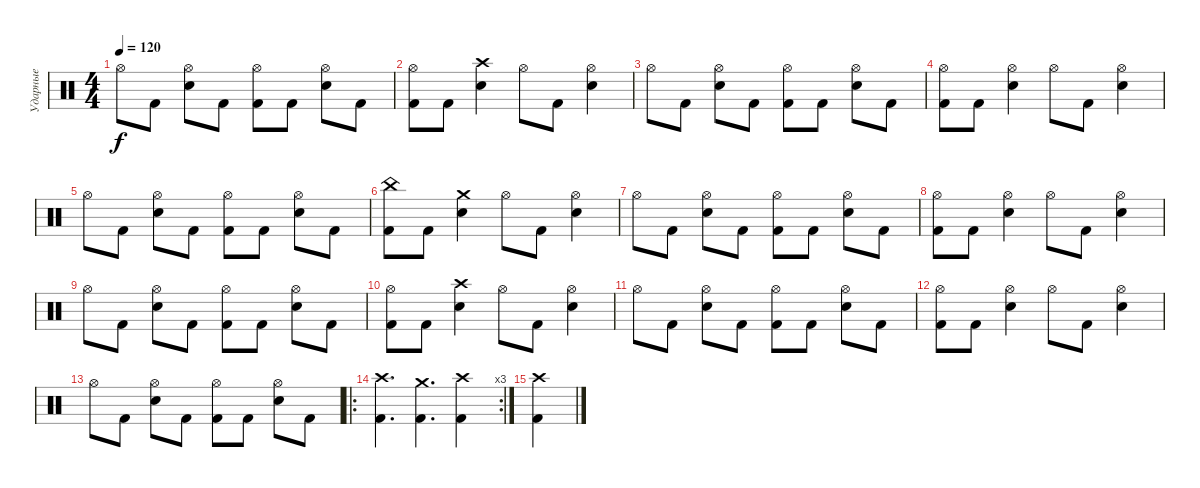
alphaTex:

\track ("Ударные" "Ударные") {instrument percussion}
\staff {score}
\articulation defaults
\ts (4 4)
\tempo 120
\clef neutral
\ks c "Hi-Hat (open)".8{dy f} "Kick (hit) 2".8
("Hi-Hat (open)" "Electric Snare (hit)").8 "Kick (hit) 2".8 ("Hi-Hat (open)" "Kick (hit) 2").8 "Kick (hit) 2".8 ("Hi-Hat (open)" "Electric Snare (hit)").8 "Kick (hit) 2".8 |
("Hi-Hat (open)" "Kick (hit) 2").8 "Kick (hit) 2".8 ("Crash high (hit)" "Electric Snare (hit)").4 "Hi-Hat (open)".8 "Kick (hit) 2".8 ("Hi-Hat (open)" "Electric Snare (hit)").4 |
"Hi-Hat (open)".8 "Kick (hit) 2".8 ("Hi-Hat (open)" "Electric Snare (hit)").8 "Kick (hit) 2".8 ("Hi-Hat (open)" "Kick (hit) 2").8 "Kick (hit) 2".8 ("Hi-Hat (open)" "Electric Snare (hit)").8 "Kick (hit) 2".8 |
("Hi-Hat (open)" "Kick (hit) 2").8 "Kick (hit) 2".8 ("Hi-Hat (open)" "Electric Snare (hit)").4 "Hi-Hat (open)".8 "Kick (hit) 2".8 ("Hi-Hat (open)" "Electric Snare (hit)").4 |
"Hi-Hat (open)".8 "Kick (hit) 2".8 ("Hi-Hat (open)" "Electric Snare (hit)").8 "Kick (hit) 2".8 ("Hi-Hat (open)" "Kick (hit) 2").8 "Kick (hit) 2".8 ("Hi-Hat (open)" "Electric Snare (hit)").8 "Kick (hit) 2".8 |
("China (hit)" "Kick (hit) 2").8 "Kick (hit) 2".8 ("Crash medium (hit)" "Electric Snare (hit)").4 "Hi-Hat (open)".8 "Kick (hit) 2".8 ("Hi-Hat (open)" "Electric Snare (hit)").4 |
"Hi-Hat (open)".8 "Kick (hit) 2".8 ("Hi-Hat (open)" "Electric Snare (hit)").8 "Kick (hit) 2".8 ("Hi-Hat (open)" "Kick (hit) 2").8 "Kick (hit) 2".8 ("Hi-Hat (open)" "Electric Snare (hit)").8 "Kick (hit) 2".8 |
("Hi-Hat (open)" "Kick (hit) 2").8 "Kick (hit) 2".8 ("Hi-Hat (open)" "Electric Snare (hit)").4 "Hi-Hat (open)".8 "Kick (hit) 2".8 ("Hi-Hat (open)" "Electric Snare (hit)").4 |
"Hi-Hat (open)".8 "Kick (hit) 2".8 ("Hi-Hat (open)" "Electric Snare (hit)").8 "Kick (hit) 2".8 ("Hi-Hat (open)" "Kick (hit) 2").8 "Kick (hit) 2".8 ("Hi-Hat (open)" "Electric Snare (hit)").8 "Kick (hit) 2".8 |
("Hi-Hat (open)" "Kick (hit) 2").8 "Kick (hit) 2".8 ("Crash high (hit)" "Electric Snare (hit)").4 "Hi-Hat (open)".8 "Kick (hit) 2".8 ("Hi-Hat (open)" "Electric Snare (hit)").4 |
"Hi-Hat (open)".8 "Kick (hit) 2".8 ("Hi-Hat (open)" "Electric Snare (hit)").8 "Kick (hit) 2".8 ("Hi-Hat (open)" "Kick (hit) 2").8 "Kick (hit) 2".8 ("Hi-Hat (open)" "Electric Snare (hit)").8 "Kick (hit) 2".8 |
("Hi-Hat (open)" "Kick (hit) 2").8 "Kick (hit) 2".8 ("Hi-Hat (open)" "Electric Snare (hit)").4 "Hi-Hat (open)".8 "Kick (hit) 2".8 ("Hi-Hat (open)" "Electric Snare (hit)").4 |
"Hi-Hat (open)".8 "Kick (hit) 2".8 ("Hi-Hat (open)" "Electric Snare (hit)").8 "Kick (hit) 2".8 ("Hi-Hat (open)" "Kick (hit) 2").8 "Kick (hit) 2".8 ("Hi-Hat (open)" "Electric Snare (hit)").8 "Kick (hit) 2".8 |
\ro
\rc 3
("Crash high (hit)" "Kick (hit) 2").4{d} ("Crash medium (hit)" "Kick (hit) 2").4{d} ("Crash high (hit)" "Kick (hit) 2").4 |
("Crash high (hit)" "Kick (hit) 2").4
